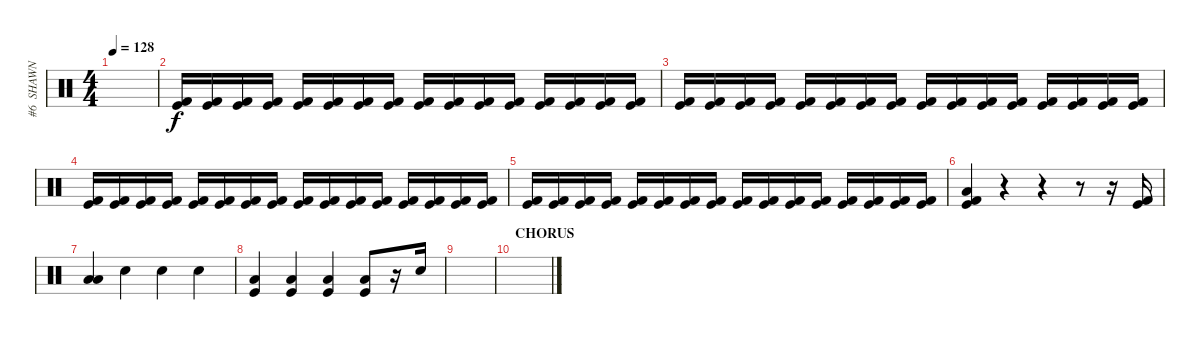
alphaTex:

\track ("#6  SHAWN \"CLOWN\" CRAHAN" "#6  SHAWN ") {instrument percussion}
\staff {score}
\articulation defaults
\ts (4 4)
\tempo 128
\clef neutral
\ks c
|
("Kick (hit) 2" "Kick (hit)").16 ("Kick (hit) 2" "Kick (hit)").16 ("Kick (hit) 2" "Kick (hit)").16 ("Kick (hit) 2" "Kick (hit)").16 ("Kick (hit) 2" "Kick (hit)").16 ("Kick (hit) 2" "Kick (hit)").16 ("Kick (hit) 2" "Kick (hit)").16 ("Kick (hit) 2" "Kick (hit)").16 ("Kick (hit) 2" "Kick (hit)").16 ("Kick (hit) 2" "Kick (hit)").16 ("Kick (hit) 2" "Kick (hit)").16 ("Kick (hit) 2" "Kick (hit)").16 ("Kick (hit) 2" "Kick (hit)").16 ("Kick (hit) 2" "Kick (hit)").16 ("Kick (hit) 2" "Kick (hit)").16 ("Kick (hit) 2" "Kick (hit)").16 |
("Kick (hit) 2" "Kick (hit)").16 ("Kick (hit) 2" "Kick (hit)").16 ("Kick (hit) 2" "Kick (hit)").16 ("Kick (hit) 2" "Kick (hit)").16 ("Kick (hit) 2" "Kick (hit)").16 ("Kick (hit) 2" "Kick (hit)").16 ("Kick (hit) 2" "Kick (hit)").16 ("Kick (hit) 2" "Kick (hit)").16 ("Kick (hit) 2" "Kick (hit)").16 ("Kick (hit) 2" "Kick (hit)").16 ("Kick (hit) 2" "Kick (hit)").16 ("Kick (hit) 2" "Kick (hit)").16 ("Kick (hit) 2" "Kick (hit)").16 ("Kick (hit) 2" "Kick (hit)").16 ("Kick (hit) 2" "Kick (hit)").16 ("Kick (hit) 2" "Kick (hit)").16 |
("Kick (hit) 2" "Kick (hit)").16 ("Kick (hit) 2" "Kick (hit)").16 ("Kick (hit) 2" "Kick (hit)").16 ("Kick (hit) 2" "Kick (hit)").16 ("Kick (hit) 2" "Kick (hit)").16 ("Kick (hit) 2" "Kick (hit)").16 ("Kick (hit) 2" "Kick (hit)").16 ("Kick (hit) 2" "Kick (hit)").16 ("Kick (hit) 2" "Kick (hit)").16 ("Kick (hit) 2" "Kick (hit)").16 ("Kick (hit) 2" "Kick (hit)").16 ("Kick (hit) 2" "Kick (hit)").16 ("Kick (hit) 2" "Kick (hit)").16 ("Kick (hit) 2" "Kick (hit)").16 ("Kick (hit) 2" "Kick (hit)").16 ("Kick (hit) 2" "Kick (hit)").16 |
("Kick (hit) 2" "Kick (hit)").16 ("Kick (hit) 2" "Kick (hit)").16 ("Kick (hit) 2" "Kick (hit)").16 ("Kick (hit) 2" "Kick (hit)").16 ("Kick (hit) 2" "Kick (hit)").16 ("Kick (hit) 2" "Kick (hit)").16 ("Kick (hit) 2" "Kick (hit)").16 ("Kick (hit) 2" "Kick (hit)").16 ("Kick (hit) 2" "Kick (hit)").16 ("Kick (hit) 2" "Kick (hit)").16 ("Kick (hit) 2" "Kick (hit)").16 ("Kick (hit) 2" "Kick (hit)").16 ("Kick (hit) 2" "Kick (hit)").16 ("Kick (hit) 2" "Kick (hit)").16 ("Kick (hit) 2" "Kick (hit)").16 ("Kick (hit) 2" "Kick (hit)").16 |
\section ("" "")
("Kick (hit) 2" "Low Floor Tom (hit)" "Kick (hit)").4 r.4 r.4 r.8 r.16 ("Kick (hit) 2" "Kick (hit)").16 |
("Low Floor Tom (hit)" "Low Floor Tom (hit)").4 "Snare (hit)"{x}.4 "Snare (hit)"{x}.4 "Snare (hit)"{x}.4 |
("Kick (hit)" "Low Floor Tom (hit)").4 ("Kick (hit)" "Low Floor Tom (hit)").4 ("Kick (hit)" "Low Floor Tom (hit)").4 ("Kick (hit)" "Low Floor Tom (hit)").8 r.16 "Snare (hit)"{x}.16 |
|
\section ("" "CHORUS")
